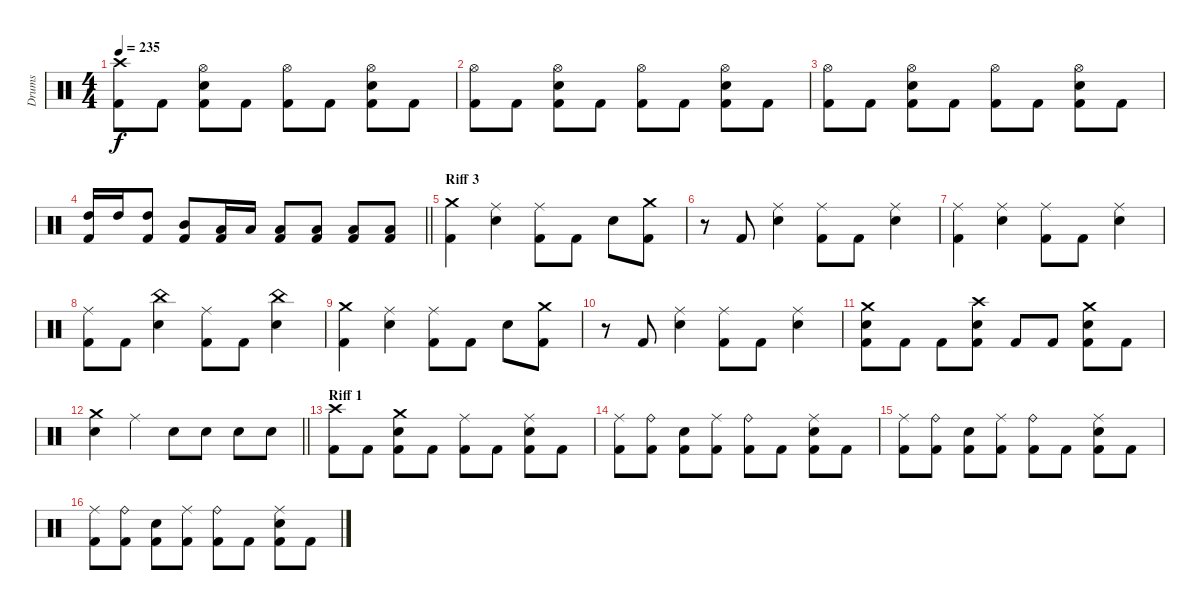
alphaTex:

\track ("Drums" "Drums") {instrument percussion}
\staff {score}
\articulation defaults
\ts (4 4)
\tempo 235
\clef neutral
\ks aminor
("Crash high (hit)" "Kick (hit) 2").8{dy f} "Kick (hit) 2".8 ("Electric Snare (hit)" "Hi-Hat (open)" "Kick (hit) 2").8 "Kick (hit) 2".8 ("Hi-Hat (open)" "Kick (hit) 2").8 "Kick (hit) 2".8 ("Electric Snare (hit)" "Hi-Hat (open)" "Kick (hit) 2").8 "Kick (hit) 2".8 |
("Hi-Hat (open)" "Kick (hit) 2").8 "Kick (hit) 2".8 ("Electric Snare (hit)" "Hi-Hat (open)" "Kick (hit) 2").8 "Kick (hit) 2".8 ("Hi-Hat (open)" "Kick (hit) 2").8 "Kick (hit) 2".8 ("Electric Snare (hit)" "Hi-Hat (open)" "Kick (hit) 2").8 "Kick (hit) 2".8 |
("Hi-Hat (open)" "Kick (hit) 2").8 "Kick (hit) 2".8 ("Electric Snare (hit)" "Hi-Hat (open)" "Kick (hit) 2").8 "Kick (hit) 2".8 ("Hi-Hat (open)" "Kick (hit) 2").8 "Kick (hit) 2".8 ("Electric Snare (hit)" "Hi-Hat (open)" "Kick (hit) 2").8 "Kick (hit) 2".8 |
\barLineRight lightlight
("High Tom (hit)" "Kick (hit) 2").16 "High Tom (hit)".16 ("High Tom (hit)" "Kick (hit) 2").8 ("Mid Tom (hit)" "Kick (hit) 2").8 ("Low Tom (hit)" "Kick (hit) 2").16 "Low Tom (hit)".16 ("Low Tom (hit)" "Kick (hit) 2").8 ("Low Tom (hit)" "Kick (hit) 2").8 ("Kick (hit) 2" "Low Floor Tom (hit)").8 ("Kick (hit) 2" "Low Floor Tom (hit)").8 |
\section ("" "Riff 3")
("Crash medium (hit)" "Kick (hit) 2").4 ("Ride (middle)" "Electric Snare (hit)").4 ("Ride (middle)" "Kick (hit) 2").8 "Kick (hit) 2".8 "Electric Snare (hit)".8 ("Kick (hit) 2" "Crash medium (hit)").8 |
r.8 "Kick (hit) 2".8 ("Electric Snare (hit)" "Ride (middle)").4 ("Kick (hit) 2" "Ride (middle)").8 "Kick (hit) 2".8 ("Electric Snare (hit)" "Ride (middle)").4 |
("Ride (middle)" "Kick (hit) 2").4 ("Ride (middle)" "Electric Snare (hit)").4 ("Ride (middle)" "Kick (hit) 2").8 "Kick (hit) 2".8 ("Ride (middle)" "Electric Snare (hit)").4 |
("Ride (middle)" "Kick (hit) 2").8 "Kick (hit) 2".8 ("China (hit)" "Electric Snare (hit)").4 ("Ride (middle)" "Kick (hit) 2").8 "Kick (hit) 2".8 ("China (hit)" "Electric Snare (hit)").4 |
("Crash medium (hit)" "Kick (hit) 2").4 ("Ride (middle)" "Electric Snare (hit)").4 ("Ride (middle)" "Kick (hit) 2").8 "Kick (hit) 2".8 "Electric Snare (hit)".8 ("Kick (hit) 2" "Crash medium (hit)").8 |
r.8 "Kick (hit) 2".8 ("Electric Snare (hit)" "Ride (middle)").4 ("Kick (hit) 2" "Ride (middle)").8 "Kick (hit) 2".8 ("Electric Snare (hit)" "Ride (middle)").4 |
("Electric Snare (hit)" "Crash medium (hit)" "Kick (hit) 2").8 "Kick (hit) 2".8 "Kick (hit) 2".8 ("Electric Snare (hit)" "Crash high (hit)" "Kick (hit) 2").8 "Kick (hit) 2".8 "Kick (hit) 2".8 ("Crash medium (hit)" "Electric Snare (hit)" "Kick (hit) 2").8 "Kick (hit) 2".8 |
\barLineRight lightlight
("Electric Snare (hit)" "Crash medium (hit)").4 "Ride (middle)".4 "Electric Snare (hit)".8 "Electric Snare (hit)".8 "Electric Snare (hit)".8 "Electric Snare (hit)".8 |
\section ("" "Riff 1")
("Kick (hit) 2" "Crash high (hit)").8 "Kick (hit) 2".8 ("Kick (hit) 2" "Crash medium (hit)" "Electric Snare (hit)").8 "Kick (hit) 2".8 ("Kick (hit) 2" "Ride (middle)").8 "Kick (hit) 2".8 ("Kick (hit) 2" "Electric Snare (hit)" "Ride (middle)").8 "Kick (hit) 2".8 |
("Kick (hit) 2" "Ride (middle)").8 ("Kick (hit) 2" "Ride (bell)").8 ("Kick (hit) 2" "Electric Snare (hit)").8 ("Kick (hit) 2" "Ride (middle)").8 ("Kick (hit) 2" "Ride (bell)").8 "Kick (hit) 2".8 ("Kick (hit) 2" "Electric Snare (hit)" "Ride (middle)").8 "Kick (hit) 2".8 |
("Kick (hit) 2" "Ride (middle)").8 ("Kick (hit) 2" "Ride (bell)").8 ("Kick (hit) 2" "Electric Snare (hit)").8 ("Kick (hit) 2" "Ride (middle)").8 ("Kick (hit) 2" "Ride (bell)").8 "Kick (hit) 2".8 ("Kick (hit) 2" "Electric Snare (hit)" "Ride (middle)").8 "Kick (hit) 2".8 |
("Kick (hit) 2" "Ride (middle)").8 ("Kick (hit) 2" "Ride (bell)").8 ("Kick (hit) 2" "Electric Snare (hit)").8 ("Kick (hit) 2" "Ride (middle)").8 ("Kick (hit) 2" "Ride (bell)").8 "Kick (hit) 2".8 ("Kick (hit) 2" "Electric Snare (hit)" "Ride (middle)").8 "Kick (hit) 2".8
